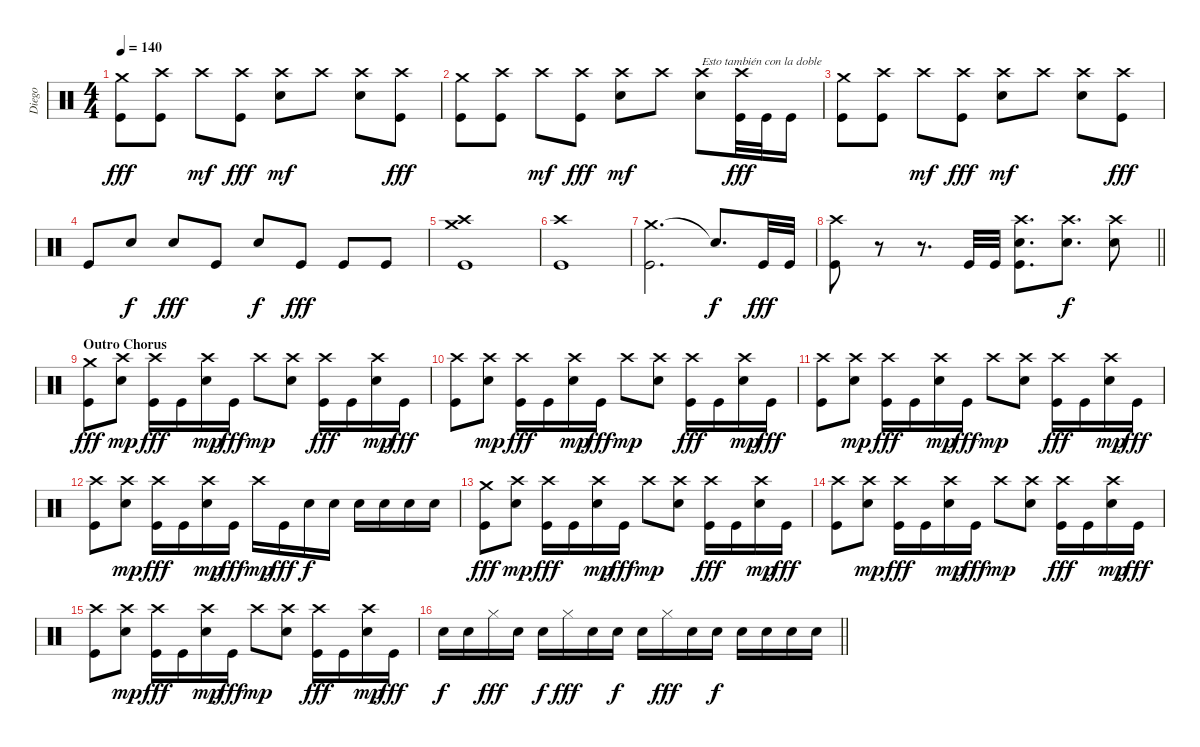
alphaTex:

\track ("Diego" "Diego") {instrument percussion}
\staff {score}
\articulation defaults
\ts (4 4)
\tempo 140
\clef neutral
\ks c
("Crash medium (hit)" "Kick (hit)").8{dy fff} ("Crash high (hit)" "Kick (hit)").8 "Crash high (hit)".8{dy mf} ("Crash high (hit)" "Kick (hit)").8{dy fff} ("Crash high (hit)" "Snare (hit) 2").8{dy mf} "Crash high (hit)".8 ("Crash high (hit)" "Snare (hit) 2").8 ("Crash high (hit)" "Kick (hit)").8{dy fff} |
("Crash medium (hit)" "Kick (hit)").8 ("Crash high (hit)" "Kick (hit)").8 "Crash high (hit)".8{dy mf} ("Crash high (hit)" "Kick (hit)").8{dy fff} ("Crash high (hit)" "Snare (hit) 2").8{dy mf} "Crash high (hit)".8 ("Crash high (hit)" "Snare (hit) 2").8{txt "Esto también con la doble"} ("Crash high (hit)" "Kick (hit)").32{dy fff} "Kick (hit)".32 "Kick (hit)".16 |
("Crash medium (hit)" "Kick (hit)").8 ("Crash high (hit)" "Kick (hit)").8 "Crash high (hit)".8{dy mf} ("Crash high (hit)" "Kick (hit)").8{dy fff} ("Crash high (hit)" "Snare (hit) 2").8{dy mf} "Crash high (hit)".8 ("Crash high (hit)" "Snare (hit) 2").8 ("Crash high (hit)" "Kick (hit)").8{dy fff} |
"Kick (hit)".8 "Snare (hit) 2".8{dy f} "Snare (hit) 2".8{dy fff} "Kick (hit)".8 "Snare (hit) 2".8{dy f} "Kick (hit)".8{dy fff} "Kick (hit)".8 "Kick (hit)".8 |
("Crash high (hit)" "Crash medium (hit)" "Kick (hit)").1 |
("Crash high (hit)" "Kick (hit)").1 |
("Crash medium (hit)" "Kick (hit)").2{d} "Snare (hit)"{t}.8{d dy f} "Kick (hit)".32{dy fff} "Kick (hit)".32 |
\barLineRight lightlight
("Crash high (hit)" "Kick (hit)").8 r.8 r.8{d} "Kick (hit)".32 "Kick (hit)".32 ("Crash high (hit)" "Snare (hit) 2" "Kick (hit)").8{d} ("Crash high (hit)" "Snare (hit) 2").8{d dy f} ("Crash high (hit)" "Snare (hit) 2").8 |
\section ("" "Outro Chorus")
("Crash medium (hit)" "Kick (hit)").8{dy fff} ("Crash high (hit)" "Snare (hit) 2").8{dy mp} ("Crash high (hit)" "Kick (hit)").16{dy fff} "Kick (hit)".16 ("Crash high (hit)" "Snare (hit) 2").16{dy mp} "Kick (hit)".16{dy fff} "Crash high (hit)".8{dy mp} ("Crash high (hit)" "Snare (hit) 2").8 ("Crash high (hit)" "Kick (hit)").16{dy fff} "Kick (hit)".16 ("Crash high (hit)" "Snare (hit) 2").16{dy mp} "Kick (hit)".16{dy fff} |
("Crash high (hit)" "Kick (hit)").8 ("Crash high (hit)" "Snare (hit) 2").8{dy mp} ("Crash high (hit)" "Kick (hit)").16{dy fff} "Kick (hit)".16 ("Crash high (hit)" "Snare (hit) 2").16{dy mp} "Kick (hit)".16{dy fff} "Crash high (hit)".8{dy mp} ("Crash high (hit)" "Snare (hit) 2").8 ("Crash high (hit)" "Kick (hit)").16{dy fff} "Kick (hit)".16 ("Crash high (hit)" "Snare (hit) 2").16{dy mp} "Kick (hit)".16{dy fff} |
("Crash high (hit)" "Kick (hit)").8 ("Crash high (hit)" "Snare (hit) 2").8{dy mp} ("Crash high (hit)" "Kick (hit)").16{dy fff} "Kick (hit)".16 ("Crash high (hit)" "Snare (hit) 2").16{dy mp} "Kick (hit)".16{dy fff} "Crash high (hit)".8{dy mp} ("Crash high (hit)" "Snare (hit) 2").8 ("Crash high (hit)" "Kick (hit)").16{dy fff} "Kick (hit)".16 ("Crash high (hit)" "Snare (hit) 2").16{dy mp} "Kick (hit)".16{dy fff} |
("Crash high (hit)" "Kick (hit)").8 ("Crash high (hit)" "Snare (hit) 2").8{dy mp} ("Crash high (hit)" "Kick (hit)").16{dy fff} "Kick (hit)".16 ("Crash high (hit)" "Snare (hit) 2").16{dy mp} "Kick (hit)".16{dy fff} "Crash high (hit)".16{dy mp} "Kick (hit)".16{dy fff} "Snare (hit) 2".16{dy f} "Snare (hit) 2".16 "Snare (hit) 2".16 "Snare (hit) 2".16 "Snare (hit) 2".16 "Snare (hit) 2".16 |
("Crash medium (hit)" "Kick (hit)").8{dy fff} ("Crash high (hit)" "Snare (hit) 2").8{dy mp} ("Crash high (hit)" "Kick (hit)").16{dy fff} "Kick (hit)".16 ("Crash high (hit)" "Snare (hit) 2").16{dy mp} "Kick (hit)".16{dy fff} "Crash high (hit)".8{dy mp} ("Crash high (hit)" "Snare (hit) 2").8 ("Crash high (hit)" "Kick (hit)").16{dy fff} "Kick (hit)".16 ("Crash high (hit)" "Snare (hit) 2").16{dy mp} "Kick (hit)".16{dy fff} |
("Crash high (hit)" "Kick (hit)").8 ("Crash high (hit)" "Snare (hit) 2").8{dy mp} ("Crash high (hit)" "Kick (hit)").16{dy fff} "Kick (hit)".16 ("Crash high (hit)" "Snare (hit) 2").16{dy mp} "Kick (hit)".16{dy fff} "Crash high (hit)".8{dy mp} ("Crash high (hit)" "Snare (hit) 2").8 ("Crash high (hit)" "Kick (hit)").16{dy fff} "Kick (hit)".16 ("Crash high (hit)" "Snare (hit) 2").16{dy mp} "Kick (hit)".16{dy fff} |
("Crash high (hit)" "Kick (hit)").8 ("Crash high (hit)" "Snare (hit) 2").8{dy mp} ("Crash high (hit)" "Kick (hit)").16{dy fff} "Kick (hit)".16 ("Crash high (hit)" "Snare (hit) 2").16{dy mp} "Kick (hit)".16{dy fff} "Crash high (hit)".8{dy mp} ("Crash high (hit)" "Snare (hit) 2").8 ("Crash high (hit)" "Kick (hit)").16{dy fff} "Kick (hit)".16 ("Crash high (hit)" "Snare (hit) 2").16{dy mp} "Kick (hit)".16{dy fff} |
\barLineRight lightlight "Snare (hit) 2".16{dy f} "Snare (hit) 2".16 "Hi-Hat (closed)".16{dy fff} "Snare (hit) 2".16 "Snare (hit) 2".16{dy f} "Hi-Hat (closed)".16{dy fff} "Snare (hit) 2".16 "Snare (hit) 2".16{dy f} "Snare (hit) 2".16 "Hi-Hat (closed)".16{dy fff} "Snare (hit) 2".16 "Snare (hit) 2".16{dy f} "Snare (hit) 2".16 "Snare (hit) 2".16 "Snare (hit) 2".16 "Snare (hit) 2".16
